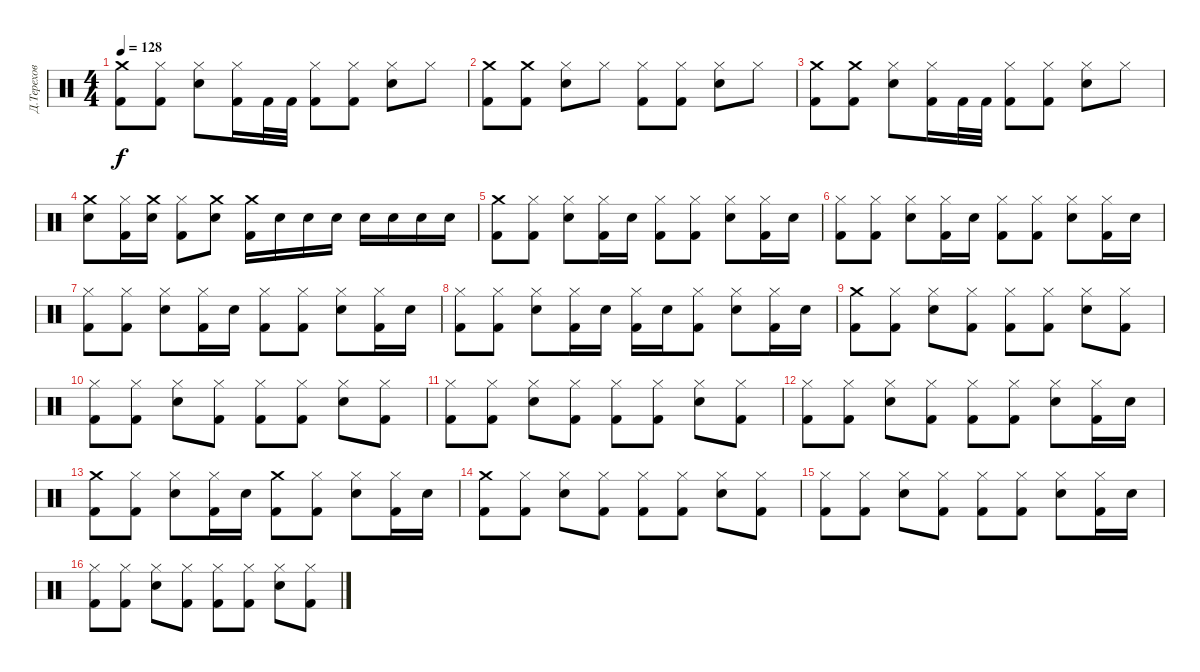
\track ("Д.Терехов" "Д.Терехов") {instrument percussion}
\staff {score}
\articulation defaults
\ts (4 4)
\tempo 128
\clef neutral
\ks c
("Crash medium (hit)" "Kick (hit) 2").8{dy f} ("Hi-Hat (closed)" "Kick (hit) 2").8 ("Hi-Hat (closed)" "Electric Snare (hit)").8 ("Hi-Hat (closed)" "Kick (hit) 2").16 "Kick (hit) 2".32 "Kick (hit) 2".32 ("Hi-Hat (closed)" "Kick (hit) 2").8 ("Hi-Hat (closed)" "Kick (hit) 2").8 ("Hi-Hat (closed)" "Electric Snare (hit)").8 "Hi-Hat (closed)".8 |
("Crash medium (hit)" "Kick (hit) 2").8 ("Crash medium (hit)" "Kick (hit) 2").8 ("Hi-Hat (closed)" "Electric Snare (hit)").8 "Hi-Hat (closed)".8 ("Hi-Hat (closed)" "Kick (hit) 2").8 ("Hi-Hat (closed)" "Kick (hit) 2").8 ("Hi-Hat (closed)" "Electric Snare (hit)").8 "Hi-Hat (closed)".8 |
("Crash medium (hit)" "Kick (hit) 2").8 ("Crash medium (hit)" "Kick (hit) 2").8 ("Hi-Hat (closed)" "Electric Snare (hit)").8 ("Hi-Hat (closed)" "Kick (hit) 2").16 "Kick (hit) 2".32 "Kick (hit) 2".32 ("Hi-Hat (closed)" "Kick (hit) 2").8 ("Hi-Hat (closed)" "Kick (hit) 2").8 ("Hi-Hat (closed)" "Electric Snare (hit)").8 "Hi-Hat (closed)".8 |
("Crash medium (hit)" "Electric Snare (hit)").8 ("Hi-Hat (closed)" "Kick (hit) 2").16 ("Crash medium (hit)" "Electric Snare (hit)").16 ("Hi-Hat (closed)" "Kick (hit) 2").8 ("Crash medium (hit)" "Electric Snare (hit)").8 ("Crash medium (hit)" "Kick (hit) 2").16 "Electric Snare (hit)".16 "Electric Snare (hit)".16 "Electric Snare (hit)".16 "Electric Snare (hit)".16 "Electric Snare (hit)".16 "Electric Snare (hit)".16 "Electric Snare (hit)".16 |
("Crash medium (hit)" "Kick (hit) 2").8 ("Hi-Hat (closed)" "Kick (hit) 2").8 ("Hi-Hat (closed)" "Electric Snare (hit)").8 ("Hi-Hat (closed)" "Kick (hit) 2").16 "Electric Snare (hit)".16 ("Hi-Hat (closed)" "Kick (hit) 2").8 ("Hi-Hat (closed)" "Kick (hit) 2").8 ("Hi-Hat (closed)" "Electric Snare (hit)").8 ("Hi-Hat (closed)" "Kick (hit) 2").16 "Electric Snare (hit)".16 |
("Hi-Hat (closed)" "Kick (hit) 2").8 ("Hi-Hat (closed)" "Kick (hit) 2").8 ("Hi-Hat (closed)" "Electric Snare (hit)").8 ("Hi-Hat (closed)" "Kick (hit) 2").16 "Electric Snare (hit)".16 ("Hi-Hat (closed)" "Kick (hit) 2").8 ("Hi-Hat (closed)" "Kick (hit) 2").8 ("Hi-Hat (closed)" "Electric Snare (hit)").8 ("Hi-Hat (closed)" "Kick (hit) 2").16 "Electric Snare (hit)".16 |
("Hi-Hat (closed)" "Kick (hit) 2").8 ("Hi-Hat (closed)" "Kick (hit) 2").8 ("Hi-Hat (closed)" "Electric Snare (hit)").8 ("Hi-Hat (closed)" "Kick (hit) 2").16 "Electric Snare (hit)".16 ("Hi-Hat (closed)" "Kick (hit) 2").8 ("Hi-Hat (closed)" "Kick (hit) 2").8 ("Hi-Hat (closed)" "Electric Snare (hit)").8 ("Hi-Hat (closed)" "Kick (hit) 2").16 "Electric Snare (hit)".16 |
("Hi-Hat (closed)" "Kick (hit) 2").8 ("Hi-Hat (closed)" "Kick (hit) 2").8 ("Hi-Hat (closed)" "Electric Snare (hit)").8 ("Hi-Hat (closed)" "Kick (hit) 2").16 "Electric Snare (hit)".16 ("Hi-Hat (closed)" "Kick (hit) 2").16 "Electric Snare (hit)".16 ("Hi-Hat (closed)" "Kick (hit) 2").8 ("Hi-Hat (closed)" "Electric Snare (hit)").8 ("Hi-Hat (closed)" "Kick (hit) 2").16 "Electric Snare (hit)".16 |
("Crash medium (hit)" "Kick (hit) 2").8 ("Hi-Hat (closed)" "Kick (hit) 2").8 ("Hi-Hat (closed)" "Electric Snare (hit)").8 ("Hi-Hat (closed)" "Kick (hit) 2").8 ("Hi-Hat (closed)" "Kick (hit) 2").8 ("Hi-Hat (closed)" "Kick (hit) 2").8 ("Hi-Hat (closed)" "Electric Snare (hit)").8 ("Hi-Hat (closed)" "Kick (hit) 2").8 |
("Hi-Hat (closed)" "Kick (hit) 2").8 ("Hi-Hat (closed)" "Kick (hit) 2").8 ("Hi-Hat (closed)" "Electric Snare (hit)").8 ("Hi-Hat (closed)" "Kick (hit) 2").8 ("Hi-Hat (closed)" "Kick (hit) 2").8 ("Hi-Hat (closed)" "Kick (hit) 2").8 ("Hi-Hat (closed)" "Electric Snare (hit)").8 ("Hi-Hat (closed)" "Kick (hit) 2").8 |
("Hi-Hat (closed)" "Kick (hit) 2").8 ("Hi-Hat (closed)" "Kick (hit) 2").8 ("Hi-Hat (closed)" "Electric Snare (hit)").8 ("Hi-Hat (closed)" "Kick (hit) 2").8 ("Hi-Hat (closed)" "Kick (hit) 2").8 ("Hi-Hat (closed)" "Kick (hit) 2").8 ("Hi-Hat (closed)" "Electric Snare (hit)").8 ("Hi-Hat (closed)" "Kick (hit) 2").8 |
("Hi-Hat (closed)" "Kick (hit) 2").8 ("Hi-Hat (closed)" "Kick (hit) 2").8 ("Hi-Hat (closed)" "Electric Snare (hit)").8 ("Hi-Hat (closed)" "Kick (hit) 2").8 ("Hi-Hat (closed)" "Kick (hit) 2").8 ("Hi-Hat (closed)" "Kick (hit) 2").8 ("Hi-Hat (closed)" "Electric Snare (hit)").8 ("Hi-Hat (closed)" "Kick (hit) 2").16 "Electric Snare (hit)".16 |
("Crash medium (hit)" "Kick (hit) 2").8 ("Hi-Hat (closed)" "Kick (hit) 2").8 ("Hi-Hat (closed)" "Electric Snare (hit)").8 ("Hi-Hat (closed)" "Kick (hit) 2").16 "Electric Snare (hit)".16 ("Crash medium (hit)" "Kick (hit) 2").8 ("Hi-Hat (closed)" "Kick (hit) 2").8 ("Hi-Hat (closed)" "Electric Snare (hit)").8 ("Hi-Hat (closed)" "Kick (hit) 2").16 "Electric Snare (hit)".16 |
("Crash medium (hit)" "Kick (hit) 2").8 ("Hi-Hat (closed)" "Kick (hit) 2").8 ("Hi-Hat (closed)" "Electric Snare (hit)").8 ("Hi-Hat (closed)" "Kick (hit) 2").8 ("Hi-Hat (closed)" "Kick (hit) 2").8 ("Hi-Hat (closed)" "Kick (hit) 2").8 ("Hi-Hat (closed)" "Electric Snare (hit)").8 ("Hi-Hat (closed)" "Kick (hit) 2").8 |
("Hi-Hat (closed)" "Kick (hit) 2").8 ("Hi-Hat (closed)" "Kick (hit) 2").8 ("Hi-Hat (closed)" "Electric Snare (hit)").8 ("Hi-Hat (closed)" "Kick (hit) 2").8 ("Hi-Hat (closed)" "Kick (hit) 2").8 ("Hi-Hat (closed)" "Kick (hit) 2").8 ("Hi-Hat (closed)" "Electric Snare (hit)").8 ("Hi-Hat (closed)" "Kick (hit) 2").16 "Electric Snare (hit)".16 |
("Hi-Hat (closed)" "Kick (hit) 2").8 ("Hi-Hat (closed)" "Kick (hit) 2").8 ("Hi-Hat (closed)" "Electric Snare (hit)").8 ("Hi-Hat (closed)" "Kick (hit) 2").8 ("Hi-Hat (closed)" "Kick (hit) 2").8 ("Hi-Hat (closed)" "Kick (hit) 2").8 ("Hi-Hat (closed)" "Electric Snare (hit)").8 ("Hi-Hat (closed)" "Kick (hit) 2").8
